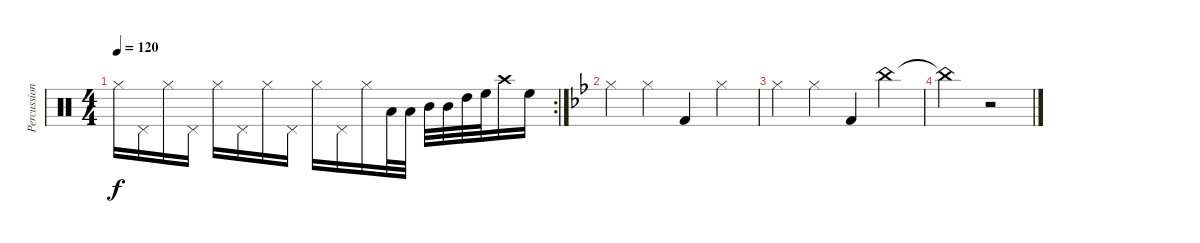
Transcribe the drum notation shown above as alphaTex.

\track ("Percussion" "Percussion") {instrument percussion}
\staff {score}
\articulation defaults
\rc 2
\ts (4 4)
\tempo 120
\clef neutral
\ks c "Hi-Hat (closed)".16{dy f} "Pedal Hi-Hat (hit)".16 "Hi-Hat (closed)".16 "Pedal Hi-Hat (hit)".16 "Hi-Hat (closed)".16 "Pedal Hi-Hat (hit)".16 "Hi-Hat (closed)".16 "Pedal Hi-Hat (hit)".16 "Hi-Hat (closed)".16 "Pedal Hi-Hat (hit)".16 "Hi-Hat (closed)".16 "Low Tom (hit)".32 "Low Tom (hit)".32 "Mid Tom (hit)".32 "Mid Tom (hit)".32 "High Tom (hit)".32 "High Floor Tom (hit)".32 "Crash high (hit)".16 "High Floor Tom (hit)".16
|
\ks bb "Hi-Hat (closed)".4 "Hi-Hat (closed)".4 "Kick (hit) 2".4 "Hi-Hat (closed)".4
|
"Hi-Hat (closed)".4 "Hi-Hat (closed)".4 "Kick (hit) 2".4 "China (hit)".4 |
"China (hit)"{t}.2 r.2
